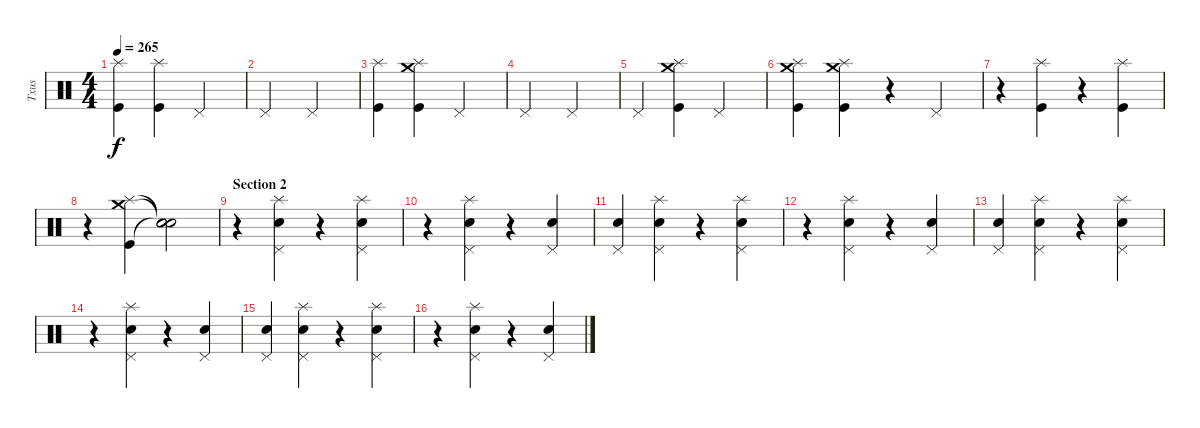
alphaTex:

\track ("Txus" "Txus") {instrument percussion}
\staff {score}
\articulation defaults
\ts (4 4)
\tempo 265
\clef neutral
\ks c
("Kick (hit)" "Splash (hit)").4{dy f} ("Kick (hit)" "Splash (hit)").4 "Pedal Hi-Hat (hit)".2 |
"Pedal Hi-Hat (hit)".2 "Pedal Hi-Hat (hit)".2 |
("Kick (hit)" "Splash (hit)").4 ("Kick (hit)" "Splash (hit)" "Crash medium (hit)").4 "Pedal Hi-Hat (hit)".2 |
"Pedal Hi-Hat (hit)".2 "Pedal Hi-Hat (hit)".2 |
"Pedal Hi-Hat (hit)".4 ("Kick (hit)" "Splash (hit)" "Crash medium (hit)").4 "Pedal Hi-Hat (hit)".2 |
("Kick (hit)" "Splash (hit)" "Crash medium (hit)").4 ("Kick (hit)" "Splash (hit)" "Crash medium (hit)").4 r.4 "Pedal Hi-Hat (hit)".4 |
r.4 ("Kick (hit)" "Splash (hit)").4 r.4 ("Kick (hit)" "Splash (hit)").4 |
r.4 ("Kick (hit)" "Splash (hit)" "Crash medium (hit)").4 ("Snare (hit)"{t} "Snare (hit)"{t} "Snare (hit)"{t}).2 |
\section ("" "Section 2")
r.4 ("Pedal Hi-Hat (hit)" "Snare (hit) 2" "Splash (hit)").4 r.4 ("Pedal Hi-Hat (hit)" "Snare (hit) 2" "Splash (hit)").4 |
r.4 ("Pedal Hi-Hat (hit)" "Snare (hit) 2" "Splash (hit)").4 r.4 ("Pedal Hi-Hat (hit)" "Snare (hit) 2").4 |
("Pedal Hi-Hat (hit)" "Snare (hit) 2").4 ("Pedal Hi-Hat (hit)" "Snare (hit) 2" "Splash (hit)").4 r.4 ("Pedal Hi-Hat (hit)" "Snare (hit) 2" "Splash (hit)").4 |
r.4 ("Pedal Hi-Hat (hit)" "Snare (hit) 2" "Splash (hit)").4 r.4 ("Pedal Hi-Hat (hit)" "Snare (hit) 2").4 |
("Pedal Hi-Hat (hit)" "Snare (hit) 2").4 ("Pedal Hi-Hat (hit)" "Snare (hit) 2" "Splash (hit)").4 r.4 ("Pedal Hi-Hat (hit)" "Snare (hit) 2" "Splash (hit)").4 |
r.4 ("Pedal Hi-Hat (hit)" "Snare (hit) 2" "Splash (hit)").4 r.4 ("Pedal Hi-Hat (hit)" "Snare (hit) 2").4 |
("Pedal Hi-Hat (hit)" "Snare (hit) 2").4 ("Pedal Hi-Hat (hit)" "Snare (hit) 2" "Splash (hit)").4 r.4 ("Pedal Hi-Hat (hit)" "Snare (hit) 2" "Splash (hit)").4 |
r.4 ("Pedal Hi-Hat (hit)" "Snare (hit) 2" "Splash (hit)").4 r.4 ("Pedal Hi-Hat (hit)" "Snare (hit) 2").4
